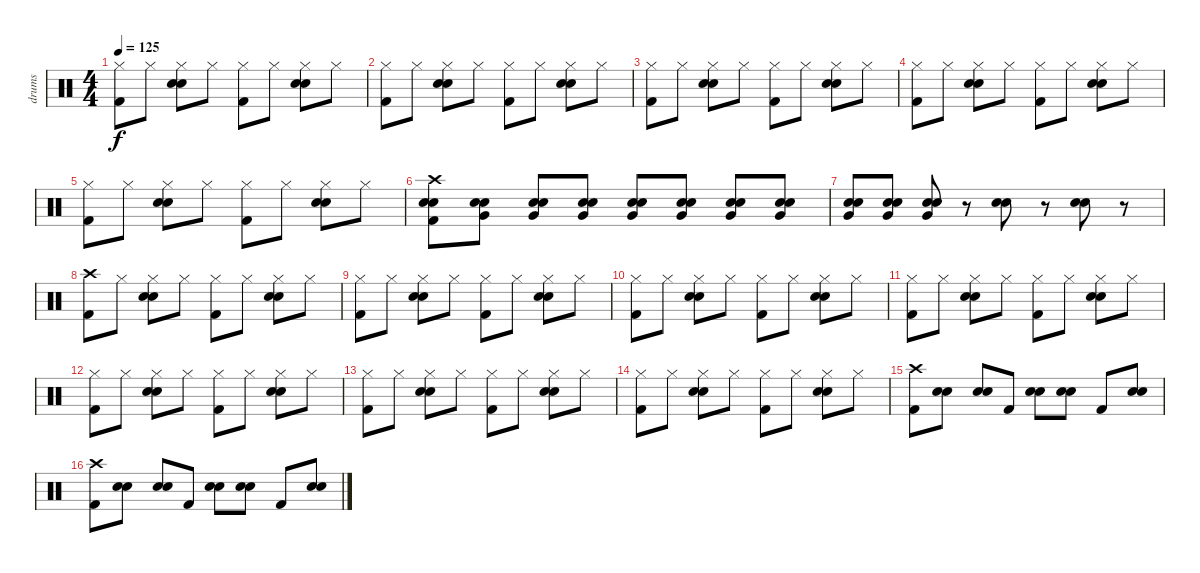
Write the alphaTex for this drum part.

\track ("drums" "drums") {instrument percussion}
\staff {score}
\articulation defaults
\ts (4 4)
\tempo 125
\clef neutral
\ks c
("Hi-Hat (closed)" "Kick (hit) 2").8{dy f} "Hi-Hat (closed)".8 ("Hi-Hat (closed)" "Snare (hit) 2" "Electric Snare (hit)").8 "Hi-Hat (closed)".8 ("Hi-Hat (closed)" "Kick (hit) 2").8 "Hi-Hat (closed)".8 ("Hi-Hat (closed)" "Snare (hit) 2" "Electric Snare (hit)").8 "Hi-Hat (closed)".8 |
("Hi-Hat (closed)" "Kick (hit) 2").8 "Hi-Hat (closed)".8 ("Hi-Hat (closed)" "Snare (hit) 2" "Electric Snare (hit)").8 "Hi-Hat (closed)".8 ("Hi-Hat (closed)" "Kick (hit) 2").8 "Hi-Hat (closed)".8 ("Hi-Hat (closed)" "Snare (hit) 2" "Electric Snare (hit)").8 "Hi-Hat (closed)".8 |
("Hi-Hat (closed)" "Kick (hit) 2").8 "Hi-Hat (closed)".8 ("Hi-Hat (closed)" "Snare (hit) 2" "Electric Snare (hit)").8 "Hi-Hat (closed)".8 ("Hi-Hat (closed)" "Kick (hit) 2").8 "Hi-Hat (closed)".8 ("Hi-Hat (closed)" "Snare (hit) 2" "Electric Snare (hit)").8 "Hi-Hat (closed)".8 |
("Hi-Hat (closed)" "Kick (hit) 2").8 "Hi-Hat (closed)".8 ("Hi-Hat (closed)" "Snare (hit) 2" "Electric Snare (hit)").8 "Hi-Hat (closed)".8 ("Hi-Hat (closed)" "Kick (hit) 2").8 "Hi-Hat (closed)".8 ("Hi-Hat (closed)" "Snare (hit) 2" "Electric Snare (hit)").8 "Hi-Hat (closed)".8 |
("Hi-Hat (closed)" "Kick (hit) 2").8 "Hi-Hat (closed)".8 ("Hi-Hat (closed)" "Snare (hit) 2" "Electric Snare (hit)").8 "Hi-Hat (closed)".8 ("Hi-Hat (closed)" "Kick (hit) 2").8 "Hi-Hat (closed)".8 ("Hi-Hat (closed)" "Snare (hit) 2" "Electric Snare (hit)").8 "Hi-Hat (closed)".8 |
("Crash high (hit)" "Snare (hit) 2" "Kick (hit) 2" "Electric Snare (hit)").8 ("Snare (hit) 2" "Very Low Tom (hit)" "Electric Snare (hit)").8 ("Snare (hit) 2" "Very Low Tom (hit)" "Electric Snare (hit)").8 ("Snare (hit) 2" "Very Low Tom (hit)" "Electric Snare (hit)").8 ("Snare (hit) 2" "Very Low Tom (hit)" "Electric Snare (hit)").8 ("Snare (hit) 2" "Very Low Tom (hit)" "Electric Snare (hit)").8 ("Snare (hit) 2" "Very Low Tom (hit)" "Electric Snare (hit)").8 ("Snare (hit) 2" "Very Low Tom (hit)" "Electric Snare (hit)").8 |
("Very Low Tom (hit)" "Snare (hit) 2" "Electric Snare (hit)").8 ("Very Low Tom (hit)" "Snare (hit) 2" "Electric Snare (hit)").8 ("Very Low Tom (hit)" "Snare (hit) 2" "Electric Snare (hit)").8 r.8 ("Snare (hit) 2" "Electric Snare (hit)").8 r.8 ("Snare (hit) 2" "Electric Snare (hit)").8 r.8 |
("Crash high (hit)" "Kick (hit) 2").8 "Hi-Hat (closed)".8 ("Hi-Hat (closed)" "Snare (hit) 2" "Electric Snare (hit)").8 "Hi-Hat (closed)".8 ("Hi-Hat (closed)" "Kick (hit) 2").8 "Hi-Hat (closed)".8 ("Hi-Hat (closed)" "Snare (hit) 2" "Electric Snare (hit)").8 "Hi-Hat (closed)".8 |
("Hi-Hat (closed)" "Kick (hit) 2").8 "Hi-Hat (closed)".8 ("Hi-Hat (closed)" "Snare (hit) 2" "Electric Snare (hit)").8 "Hi-Hat (closed)".8 ("Hi-Hat (closed)" "Kick (hit) 2").8 "Hi-Hat (closed)".8 ("Hi-Hat (closed)" "Snare (hit) 2" "Electric Snare (hit)").8 "Hi-Hat (closed)".8 |
("Hi-Hat (closed)" "Kick (hit) 2").8 "Hi-Hat (closed)".8 ("Hi-Hat (closed)" "Snare (hit) 2" "Electric Snare (hit)").8 "Hi-Hat (closed)".8 ("Hi-Hat (closed)" "Kick (hit) 2").8 "Hi-Hat (closed)".8 ("Hi-Hat (closed)" "Snare (hit) 2" "Electric Snare (hit)").8 "Hi-Hat (closed)".8 |
("Hi-Hat (closed)" "Kick (hit) 2").8 "Hi-Hat (closed)".8 ("Hi-Hat (closed)" "Snare (hit) 2" "Electric Snare (hit)").8 "Hi-Hat (closed)".8 ("Hi-Hat (closed)" "Kick (hit) 2").8 "Hi-Hat (closed)".8 ("Hi-Hat (closed)" "Snare (hit) 2" "Electric Snare (hit)").8 "Hi-Hat (closed)".8 |
("Hi-Hat (closed)" "Kick (hit) 2").8 "Hi-Hat (closed)".8 ("Hi-Hat (closed)" "Snare (hit) 2" "Electric Snare (hit)").8 "Hi-Hat (closed)".8 ("Hi-Hat (closed)" "Kick (hit) 2").8 "Hi-Hat (closed)".8 ("Hi-Hat (closed)" "Snare (hit) 2" "Electric Snare (hit)").8 "Hi-Hat (closed)".8 |
("Hi-Hat (closed)" "Kick (hit) 2").8 "Hi-Hat (closed)".8 ("Hi-Hat (closed)" "Snare (hit) 2" "Electric Snare (hit)").8 "Hi-Hat (closed)".8 ("Hi-Hat (closed)" "Kick (hit) 2").8 "Hi-Hat (closed)".8 ("Hi-Hat (closed)" "Snare (hit) 2" "Electric Snare (hit)").8 "Hi-Hat (closed)".8 |
("Hi-Hat (closed)" "Kick (hit) 2").8 "Hi-Hat (closed)".8 ("Hi-Hat (closed)" "Snare (hit) 2" "Electric Snare (hit)").8 "Hi-Hat (closed)".8 ("Hi-Hat (closed)" "Kick (hit) 2").8 "Hi-Hat (closed)".8 ("Hi-Hat (closed)" "Snare (hit) 2" "Electric Snare (hit)").8 "Hi-Hat (closed)".8 |
("Crash high (hit)" "Kick (hit) 2").8 ("Snare (hit) 2" "Electric Snare (hit)").8 ("Snare (hit) 2" "Electric Snare (hit)").8 "Kick (hit) 2".8 ("Electric Snare (hit)" "Snare (hit) 2").8 ("Electric Snare (hit)" "Snare (hit) 2").8 "Kick (hit) 2".8 ("Electric Snare (hit)" "Snare (hit) 2").8 |
("Crash high (hit)" "Kick (hit) 2").8 ("Snare (hit) 2" "Electric Snare (hit)").8 ("Snare (hit) 2" "Electric Snare (hit)").8 "Kick (hit) 2".8 ("Electric Snare (hit)" "Snare (hit) 2").8 ("Electric Snare (hit)" "Snare (hit) 2").8 "Kick (hit) 2".8 ("Electric Snare (hit)" "Snare (hit) 2").8
